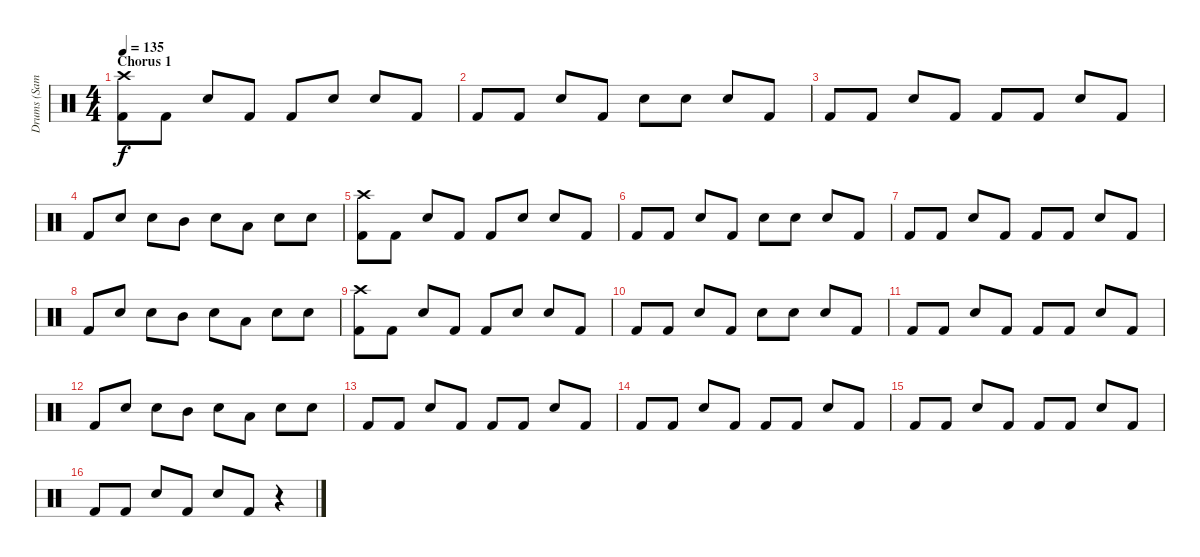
\track ("Drums (Sam Fogarino)" "Drums (Sam") {instrument percussion}
\staff {score}
\articulation defaults
\ts (4 4)
\section ("" "Chorus 1")
\tempo 135
\clef neutral
\ks c
("Crash high (hit)" "Kick (hit) 2").8{dy f} "Kick (hit) 2".8 "Snare (hit) 2".8 "Kick (hit) 2".8 "Kick (hit) 2".8 "Snare (hit) 2".8 "Snare (hit) 2".8 "Kick (hit) 2".8 |
"Kick (hit) 2".8 "Kick (hit) 2".8 "Snare (hit) 2".8 "Kick (hit) 2".8 "Snare (hit) 2".8 "Snare (hit) 2".8 "Snare (hit) 2".8 "Kick (hit) 2".8 |
"Kick (hit) 2".8 "Kick (hit) 2".8 "Snare (hit) 2".8 "Kick (hit) 2".8 "Kick (hit) 2".8 "Kick (hit) 2".8 "Snare (hit) 2".8 "Kick (hit) 2".8 |
"Kick (hit) 2".8 "Snare (hit) 2".8 "Snare (hit) 2".8 "Mid Tom (hit)".8 "Snare (hit) 2".8 "Low Tom (hit)".8 "Snare (hit) 2".8 "Snare (hit) 2".8 |
("Crash high (hit)" "Kick (hit) 2").8 "Kick (hit) 2".8 "Snare (hit) 2".8 "Kick (hit) 2".8 "Kick (hit) 2".8 "Snare (hit) 2".8 "Snare (hit) 2".8 "Kick (hit) 2".8 |
"Kick (hit) 2".8 "Kick (hit) 2".8 "Snare (hit) 2".8 "Kick (hit) 2".8 "Snare (hit) 2".8 "Snare (hit) 2".8 "Snare (hit) 2".8 "Kick (hit) 2".8 |
"Kick (hit) 2".8 "Kick (hit) 2".8 "Snare (hit) 2".8 "Kick (hit) 2".8 "Kick (hit) 2".8 "Kick (hit) 2".8 "Snare (hit) 2".8 "Kick (hit) 2".8 |
"Kick (hit) 2".8 "Snare (hit) 2".8 "Snare (hit) 2".8 "Mid Tom (hit)".8 "Snare (hit) 2".8 "Low Tom (hit)".8 "Snare (hit) 2".8 "Snare (hit) 2".8 |
("Crash high (hit)" "Kick (hit) 2").8 "Kick (hit) 2".8 "Snare (hit) 2".8 "Kick (hit) 2".8 "Kick (hit) 2".8 "Snare (hit) 2".8 "Snare (hit) 2".8 "Kick (hit) 2".8 |
"Kick (hit) 2".8 "Kick (hit) 2".8 "Snare (hit) 2".8 "Kick (hit) 2".8 "Snare (hit) 2".8 "Snare (hit) 2".8 "Snare (hit) 2".8 "Kick (hit) 2".8 |
"Kick (hit) 2".8 "Kick (hit) 2".8 "Snare (hit) 2".8 "Kick (hit) 2".8 "Kick (hit) 2".8 "Kick (hit) 2".8 "Snare (hit) 2".8 "Kick (hit) 2".8 |
"Kick (hit) 2".8 "Snare (hit) 2".8 "Snare (hit) 2".8 "Mid Tom (hit)".8 "Snare (hit) 2".8 "Low Tom (hit)".8 "Snare (hit) 2".8 "Snare (hit) 2".8 |
"Kick (hit) 2".8 "Kick (hit) 2".8 "Snare (hit) 2".8 "Kick (hit) 2".8 "Kick (hit) 2".8 "Kick (hit) 2".8 "Snare (hit) 2".8 "Kick (hit) 2".8 |
"Kick (hit) 2".8 "Kick (hit) 2".8 "Snare (hit) 2".8 "Kick (hit) 2".8 "Kick (hit) 2".8 "Kick (hit) 2".8 "Snare (hit) 2".8 "Kick (hit) 2".8 |
"Kick (hit) 2".8 "Kick (hit) 2".8 "Snare (hit) 2".8 "Kick (hit) 2".8 "Kick (hit) 2".8 "Kick (hit) 2".8 "Snare (hit) 2".8 "Kick (hit) 2".8 |
"Kick (hit) 2".8 "Kick (hit) 2".8 "Snare (hit) 2".8 "Kick (hit) 2".8 "Snare (hit) 2".8 "Kick (hit) 2".8 r.4
